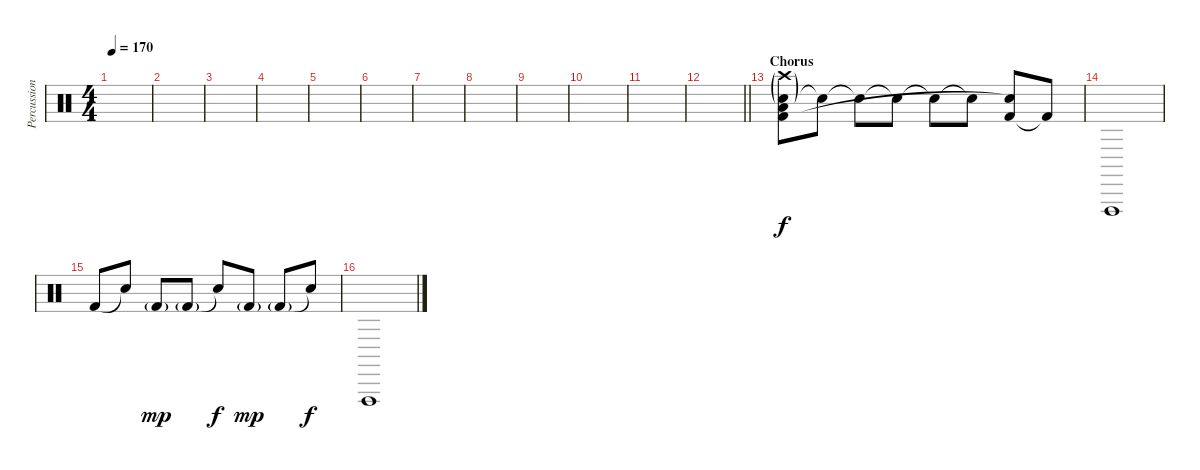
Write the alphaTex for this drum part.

\track ("Percussion" "Percussion") {instrument percussion}
\staff {score}
\articulation defaults
\ts (4 4)
\tempo 170
\clef neutral
\ks c
|
|
|
|
|
|
|
|
|
|
|
\barLineRight lightlight
|
\section ("" "Chorus")
("Electric Snare (hit)"{g} "Kick (hit) 2" "Low Floor Tom (hit)" "Crash high (hit)"{g}).8 "Snare (hit)"{t}.8{dy f} "Snare (hit)"{t}.8 "Snare (hit)"{t}.8 "Snare (hit)"{t}.8 "Snare (hit)"{t}.8 ("Kick (hit) 2" "Snare (hit)"{t}).8 "Kick (hit) 2"{t}.8 |
"Vibraslap (hit)".1 |
"Kick (hit) 2".8 "Snare (hit)"{t}.8 "Kick (hit) 2"{g}.8{dy mp} "Kick (hit) 2"{g}.8 "Snare (hit)"{t}.8{dy f} "Kick (hit) 2"{g}.8{dy mp} "Kick (hit) 2"{g}.8 "Snare (hit)"{t}.8{dy f} |
"Vibraslap (hit)".1
